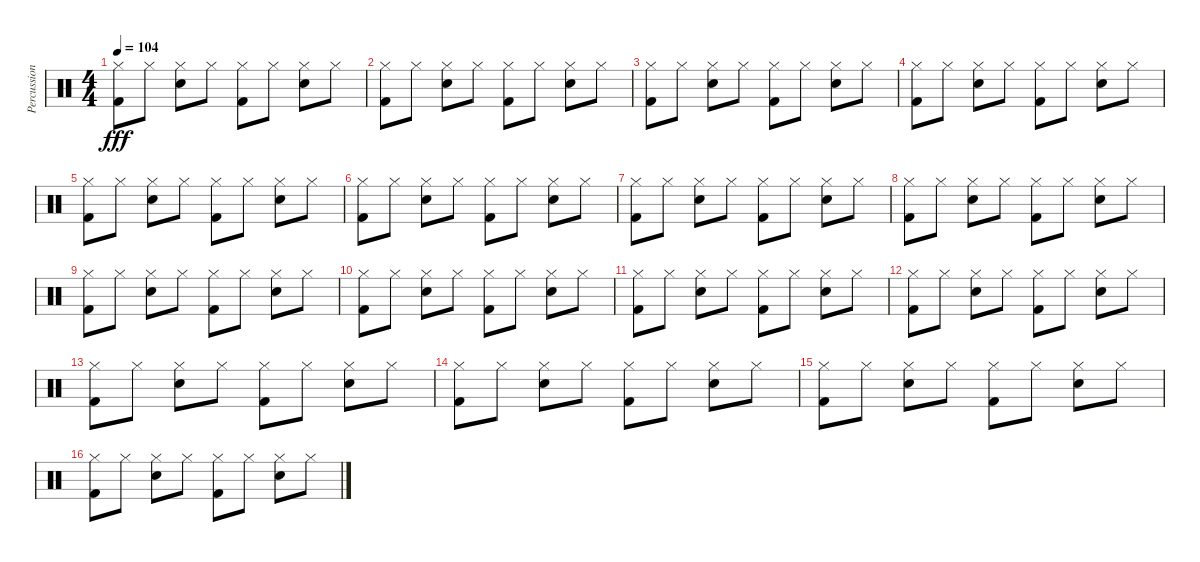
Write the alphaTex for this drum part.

\track ("Percussions" "Percussion") {instrument percussion}
\staff {score}
\articulation defaults
\ts (4 4)
\tempo 104
\clef neutral
\ks c
("Kick (hit) 2" "Hi-Hat (closed)").8{dy fff} "Hi-Hat (closed)".8 ("Snare (hit) 2" "Hi-Hat (closed)").8 "Hi-Hat (closed)".8 ("Hi-Hat (closed)" "Kick (hit) 2").8 "Hi-Hat (closed)".8 ("Hi-Hat (closed)" "Snare (hit) 2").8 "Hi-Hat (closed)".8 |
("Kick (hit) 2" "Hi-Hat (closed)").8 "Hi-Hat (closed)".8 ("Snare (hit) 2" "Hi-Hat (closed)").8 "Hi-Hat (closed)".8 ("Hi-Hat (closed)" "Kick (hit) 2").8 "Hi-Hat (closed)".8 ("Hi-Hat (closed)" "Snare (hit) 2").8 "Hi-Hat (closed)".8 |
("Kick (hit) 2" "Hi-Hat (closed)").8 "Hi-Hat (closed)".8 ("Snare (hit) 2" "Hi-Hat (closed)").8 "Hi-Hat (closed)".8 ("Hi-Hat (closed)" "Kick (hit) 2").8 "Hi-Hat (closed)".8 ("Hi-Hat (closed)" "Snare (hit) 2").8 "Hi-Hat (closed)".8 |
("Kick (hit) 2" "Hi-Hat (closed)").8 "Hi-Hat (closed)".8 ("Snare (hit) 2" "Hi-Hat (closed)").8 "Hi-Hat (closed)".8 ("Hi-Hat (closed)" "Kick (hit) 2").8 "Hi-Hat (closed)".8 ("Hi-Hat (closed)" "Snare (hit) 2").8 "Hi-Hat (closed)".8 |
("Kick (hit) 2" "Hi-Hat (closed)").8 "Hi-Hat (closed)".8 ("Snare (hit) 2" "Hi-Hat (closed)").8 "Hi-Hat (closed)".8 ("Hi-Hat (closed)" "Kick (hit) 2").8 "Hi-Hat (closed)".8 ("Hi-Hat (closed)" "Snare (hit) 2").8 "Hi-Hat (closed)".8 |
("Kick (hit) 2" "Hi-Hat (closed)").8 "Hi-Hat (closed)".8 ("Snare (hit) 2" "Hi-Hat (closed)").8 "Hi-Hat (closed)".8 ("Hi-Hat (closed)" "Kick (hit) 2").8 "Hi-Hat (closed)".8 ("Hi-Hat (closed)" "Snare (hit) 2").8 "Hi-Hat (closed)".8 |
("Kick (hit) 2" "Hi-Hat (closed)").8 "Hi-Hat (closed)".8 ("Snare (hit) 2" "Hi-Hat (closed)").8 "Hi-Hat (closed)".8 ("Hi-Hat (closed)" "Kick (hit) 2").8 "Hi-Hat (closed)".8 ("Hi-Hat (closed)" "Snare (hit) 2").8 "Hi-Hat (closed)".8 |
("Kick (hit) 2" "Hi-Hat (closed)").8 "Hi-Hat (closed)".8 ("Snare (hit) 2" "Hi-Hat (closed)").8 "Hi-Hat (closed)".8 ("Hi-Hat (closed)" "Kick (hit) 2").8 "Hi-Hat (closed)".8 ("Hi-Hat (closed)" "Snare (hit) 2").8 "Hi-Hat (closed)".8 |
("Kick (hit) 2" "Hi-Hat (closed)").8 "Hi-Hat (closed)".8 ("Snare (hit) 2" "Hi-Hat (closed)").8 "Hi-Hat (closed)".8 ("Hi-Hat (closed)" "Kick (hit) 2").8 "Hi-Hat (closed)".8 ("Hi-Hat (closed)" "Snare (hit) 2").8 "Hi-Hat (closed)".8 |
("Kick (hit) 2" "Hi-Hat (closed)").8 "Hi-Hat (closed)".8 ("Snare (hit) 2" "Hi-Hat (closed)").8 "Hi-Hat (closed)".8 ("Hi-Hat (closed)" "Kick (hit) 2").8 "Hi-Hat (closed)".8 ("Hi-Hat (closed)" "Snare (hit) 2").8 "Hi-Hat (closed)".8 |
("Kick (hit) 2" "Hi-Hat (closed)").8 "Hi-Hat (closed)".8 ("Snare (hit) 2" "Hi-Hat (closed)").8 "Hi-Hat (closed)".8 ("Hi-Hat (closed)" "Kick (hit) 2").8 "Hi-Hat (closed)".8 ("Hi-Hat (closed)" "Snare (hit) 2").8 "Hi-Hat (closed)".8 |
("Kick (hit) 2" "Hi-Hat (closed)").8 "Hi-Hat (closed)".8 ("Snare (hit) 2" "Hi-Hat (closed)").8 "Hi-Hat (closed)".8 ("Hi-Hat (closed)" "Kick (hit) 2").8 "Hi-Hat (closed)".8 ("Hi-Hat (closed)" "Snare (hit) 2").8 "Hi-Hat (closed)".8 |
("Kick (hit) 2" "Hi-Hat (closed)").8 "Hi-Hat (closed)".8 ("Snare (hit) 2" "Hi-Hat (closed)").8 "Hi-Hat (closed)".8 ("Hi-Hat (closed)" "Kick (hit) 2").8 "Hi-Hat (closed)".8 ("Hi-Hat (closed)" "Snare (hit) 2").8 "Hi-Hat (closed)".8 |
("Kick (hit) 2" "Hi-Hat (closed)").8 "Hi-Hat (closed)".8 ("Snare (hit) 2" "Hi-Hat (closed)").8 "Hi-Hat (closed)".8 ("Hi-Hat (closed)" "Kick (hit) 2").8 "Hi-Hat (closed)".8 ("Hi-Hat (closed)" "Snare (hit) 2").8 "Hi-Hat (closed)".8 |
("Kick (hit) 2" "Hi-Hat (closed)").8 "Hi-Hat (closed)".8 ("Snare (hit) 2" "Hi-Hat (closed)").8 "Hi-Hat (closed)".8 ("Hi-Hat (closed)" "Kick (hit) 2").8 "Hi-Hat (closed)".8 ("Hi-Hat (closed)" "Snare (hit) 2").8 "Hi-Hat (closed)".8 |
("Kick (hit) 2" "Hi-Hat (closed)").8 "Hi-Hat (closed)".8 ("Snare (hit) 2" "Hi-Hat (closed)").8 "Hi-Hat (closed)".8 ("Hi-Hat (closed)" "Kick (hit) 2").8 "Hi-Hat (closed)".8 ("Hi-Hat (closed)" "Snare (hit) 2").8 "Hi-Hat (closed)".8
